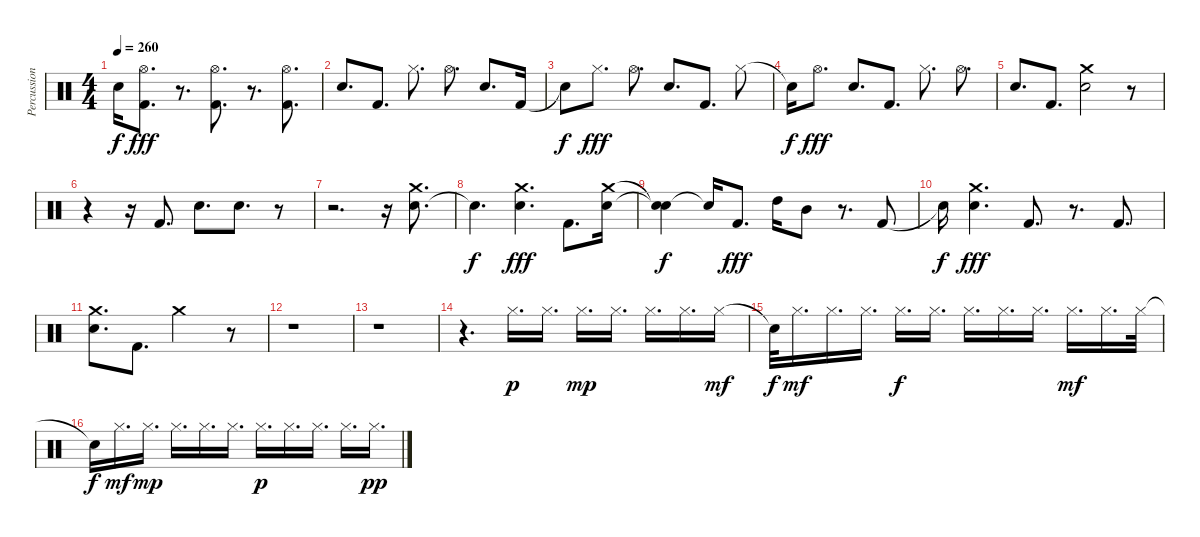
\track ("Percussion" "Percussion") {instrument percussion}
\staff {score}
\articulation defaults
\ts (4 4)
\tempo 260
\clef neutral
\ks c "Snare (hit)"{t}.16{dy f}
("Hi-Hat (open)" "Kick (hit) 2").8{d dy fff} r.8{d} ("Hi-Hat (open)" "Kick (hit) 2").8{d} r.8{d} ("Hi-Hat (open)" "Kick (hit) 2").8{d} |
"Electric Snare (hit)".8{d} "Kick (hit) 2".8{d} "Hi-Hat (closed)".8{d} "Hi-Hat (open)".8{d} "Electric Snare (hit)".8{d} "Kick (hit) 2".16 |
"Snare (hit)"{t}.8{dy f} "Hi-Hat (closed)".8{d dy fff} "Hi-Hat (open)".8{d} "Electric Snare (hit)".8{d} "Kick (hit) 2".8{d} "Hi-Hat (closed)".8 |
"Snare (hit)"{t}.16{dy f} "Hi-Hat (open)".8{d dy fff} "Electric Snare (hit)".8{d} "Kick (hit) 2".8{d} "Hi-Hat (closed)".8{d} "Hi-Hat (open)".8{d} |
"Electric Snare (hit)".8{d} "Kick (hit) 2".8{d} ("Electric Snare (hit)" "Crash medium (hit)").2 r.8 |
r.4 r.16 "Kick (hit) 2".8{d} "Electric Snare (hit)".8{d} "Electric Snare (hit)".8{d} r.8 |
r.2{d} r.16 ("Electric Snare (hit)" "Crash medium (hit)").8{d} |
"Snare (hit)"{t}.4{d dy f} ("Electric Snare (hit)" "Crash medium (hit)").4{d dy fff} "Kick (hit) 2".8{d} ("Electric Snare (hit)" "Crash medium (hit)").16 |
("Snare (hit)"{t} "Snare (hit)"{t}).4{dy f} "Snare (hit)"{t}.16 "Kick (hit) 2".8{d dy fff} "High Tom (hit)".16 "Mid Tom (hit)".8 r.8{d} "Kick (hit) 2".8 |
"Snare (hit)"{t}.16{dy f} ("Electric Snare (hit)" "Crash medium (hit)").4{d dy fff} "Kick (hit) 2".8{d} r.8{d} "Kick (hit) 2".8{d} |
("Electric Snare (hit)" "Crash medium (hit)").8{d} "Kick (hit) 2".8{d} "Crash medium (hit)".2 r.8 |
r.1 |
r.1 |
r.4{d} "Hi-Hat (closed)".16{d dy p} "Hi-Hat (closed)".16{d} "Hi-Hat (closed)".16{d dy mp} "Hi-Hat (closed)".16{d} "Hi-Hat (closed)".16{d} "Hi-Hat (closed)".16{d} "Hi-Hat (closed)".16{dy mf} |
"Snare (hit)"{t}.32{dy f} "Hi-Hat (closed)".16{d dy mf} "Hi-Hat (closed)".16{d} "Hi-Hat (closed)".16{d} "Hi-Hat (closed)".16{d dy f} "Hi-Hat (closed)".16{d} "Hi-Hat (closed)".16{d} "Hi-Hat (closed)".16{d} "Hi-Hat (closed)".16{d} "Hi-Hat (closed)".16{d dy mf} "Hi-Hat (closed)".16{d} "Hi-Hat (closed)".32 |
"Snare (hit)"{t}.16{dy f} "Hi-Hat (closed)".16{d dy mf} "Hi-Hat (closed)".16{d dy mp} "Hi-Hat (closed)".16{d} "Hi-Hat (closed)".16{d} "Hi-Hat (closed)".16{d} "Hi-Hat (closed)".16{d dy p} "Hi-Hat (closed)".16{d} "Hi-Hat (closed)".16{d} "Hi-Hat (closed)".16{d} "Hi-Hat (closed)".16{d dy pp}
